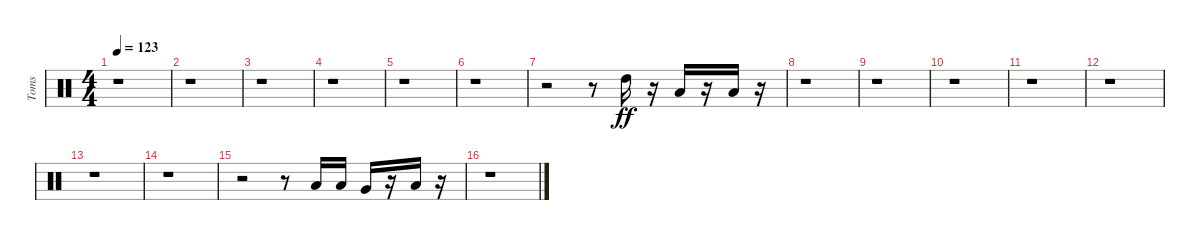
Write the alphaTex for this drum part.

\track ("Toms" "Toms") {instrument percussion}
\staff {score}
\articulation defaults
\ts (4 4)
\tempo 123
\clef neutral
\ks c
r.1{dy ff} |
r.1 |
r.1 |
r.1 |
r.1 |
r.1 |
r.2 r.8 "High Tom (hit)".16 r.16 "Low Tom (hit)".16 r.16 "Low Floor Tom (hit)".16 r.16 |
r.1 |
r.1 |
r.1 |
r.1 |
r.1 |
r.1 |
r.1 |
r.2 r.8 "Low Tom (hit)".16 "Low Tom (hit)".16 "Very Low Tom (hit)".16 r.16 "Low Floor Tom (hit)".16 r.16 |
r.1
